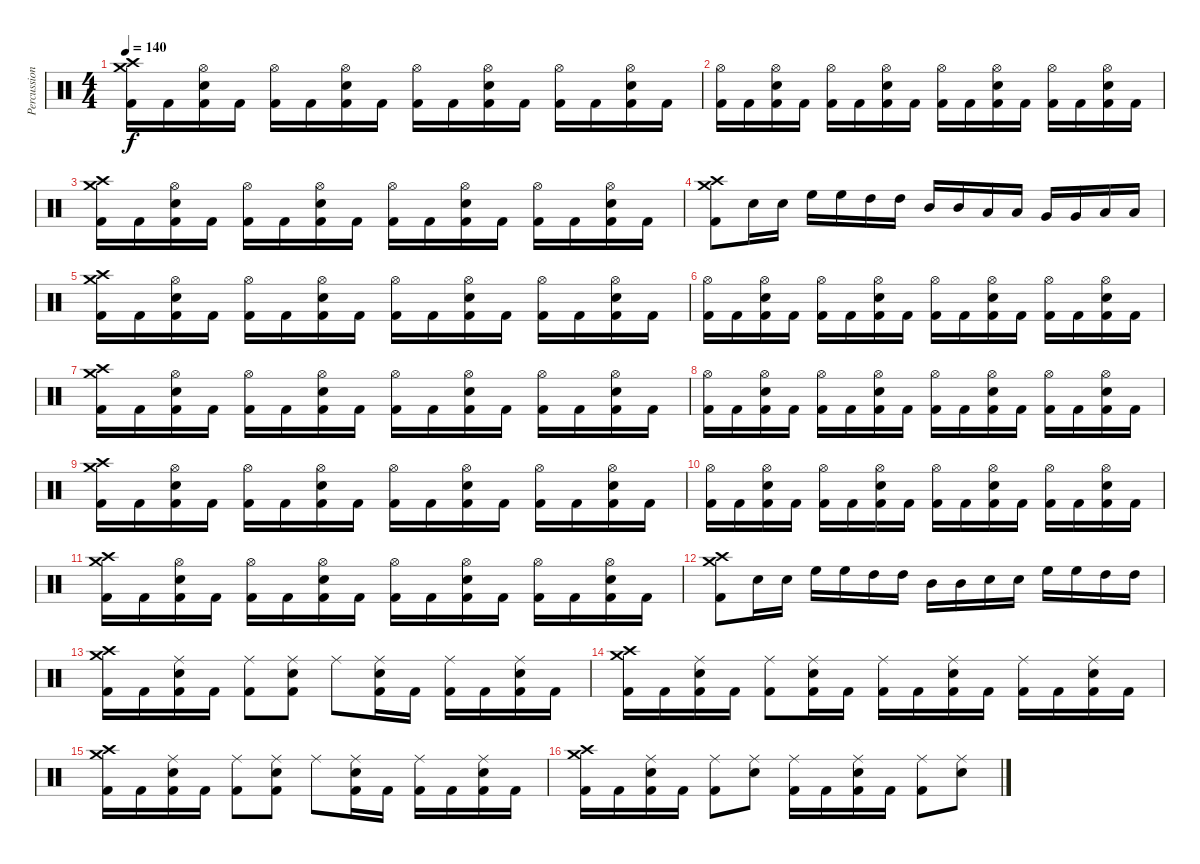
\track ("Percussion" "Percussion") {instrument percussion}
\staff {score}
\articulation defaults
\ts (4 4)
\tempo 140
\clef neutral
\ks c
("Kick (hit) 2" "Crash high (hit)" "Crash medium (hit)").16{dy f} "Kick (hit) 2".16 ("Kick (hit) 2" "Electric Snare (hit)" "Hi-Hat (open)").16 "Kick (hit) 2".16 ("Kick (hit) 2" "Hi-Hat (open)").16 "Kick (hit) 2".16 ("Kick (hit) 2" "Electric Snare (hit)" "Hi-Hat (open)").16 "Kick (hit) 2".16 ("Kick (hit) 2" "Hi-Hat (open)").16 "Kick (hit) 2".16 ("Kick (hit) 2" "Electric Snare (hit)" "Hi-Hat (open)").16 "Kick (hit) 2".16 ("Kick (hit) 2" "Hi-Hat (open)").16 "Kick (hit) 2".16 ("Kick (hit) 2" "Electric Snare (hit)" "Hi-Hat (open)").16 "Kick (hit) 2".16 |
("Kick (hit) 2" "Hi-Hat (open)").16 "Kick (hit) 2".16 ("Kick (hit) 2" "Electric Snare (hit)" "Hi-Hat (open)").16 "Kick (hit) 2".16 ("Kick (hit) 2" "Hi-Hat (open)").16 "Kick (hit) 2".16 ("Kick (hit) 2" "Electric Snare (hit)" "Hi-Hat (open)").16 "Kick (hit) 2".16 ("Kick (hit) 2" "Hi-Hat (open)").16 "Kick (hit) 2".16 ("Kick (hit) 2" "Electric Snare (hit)" "Hi-Hat (open)").16 "Kick (hit) 2".16 ("Kick (hit) 2" "Hi-Hat (open)").16 "Kick (hit) 2".16 ("Kick (hit) 2" "Electric Snare (hit)" "Hi-Hat (open)").16 "Kick (hit) 2".16 |
("Kick (hit) 2" "Crash high (hit)" "Crash medium (hit)").16 "Kick (hit) 2".16 ("Kick (hit) 2" "Electric Snare (hit)" "Hi-Hat (open)").16 "Kick (hit) 2".16 ("Kick (hit) 2" "Hi-Hat (open)").16 "Kick (hit) 2".16 ("Kick (hit) 2" "Electric Snare (hit)" "Hi-Hat (open)").16 "Kick (hit) 2".16 ("Kick (hit) 2" "Hi-Hat (open)").16 "Kick (hit) 2".16 ("Kick (hit) 2" "Electric Snare (hit)" "Hi-Hat (open)").16 "Kick (hit) 2".16 ("Kick (hit) 2" "Hi-Hat (open)").16 "Kick (hit) 2".16 ("Kick (hit) 2" "Electric Snare (hit)" "Hi-Hat (open)").16 "Kick (hit) 2".16 |
("Kick (hit) 2" "Crash high (hit)" "Crash medium (hit)").8 "Electric Snare (hit)".16 "Electric Snare (hit)".16 "High Floor Tom (hit)".16 "High Floor Tom (hit)".16 "High Tom (hit)".16 "High Tom (hit)".16 "Mid Tom (hit)".16 "Mid Tom (hit)".16 "Low Tom (hit)".16 "Low Tom (hit)".16 "Very Low Tom (hit)".16 "Very Low Tom (hit)".16 "Low Floor Tom (hit)".16 "Low Floor Tom (hit)".16 |
("Kick (hit) 2" "Crash high (hit)" "Crash medium (hit)").16 "Kick (hit) 2".16 ("Kick (hit) 2" "Electric Snare (hit)" "Hi-Hat (open)").16 "Kick (hit) 2".16 ("Kick (hit) 2" "Hi-Hat (open)").16 "Kick (hit) 2".16 ("Kick (hit) 2" "Electric Snare (hit)" "Hi-Hat (open)").16 "Kick (hit) 2".16 ("Kick (hit) 2" "Hi-Hat (open)").16 "Kick (hit) 2".16 ("Kick (hit) 2" "Electric Snare (hit)" "Hi-Hat (open)").16 "Kick (hit) 2".16 ("Kick (hit) 2" "Hi-Hat (open)").16 "Kick (hit) 2".16 ("Kick (hit) 2" "Electric Snare (hit)" "Hi-Hat (open)").16 "Kick (hit) 2".16 |
("Kick (hit) 2" "Hi-Hat (open)").16 "Kick (hit) 2".16 ("Kick (hit) 2" "Electric Snare (hit)" "Hi-Hat (open)").16 "Kick (hit) 2".16 ("Kick (hit) 2" "Hi-Hat (open)").16 "Kick (hit) 2".16 ("Kick (hit) 2" "Electric Snare (hit)" "Hi-Hat (open)").16 "Kick (hit) 2".16 ("Kick (hit) 2" "Hi-Hat (open)").16 "Kick (hit) 2".16 ("Kick (hit) 2" "Electric Snare (hit)" "Hi-Hat (open)").16 "Kick (hit) 2".16 ("Kick (hit) 2" "Hi-Hat (open)").16 "Kick (hit) 2".16 ("Kick (hit) 2" "Electric Snare (hit)" "Hi-Hat (open)").16 "Kick (hit) 2".16 |
("Kick (hit) 2" "Crash high (hit)" "Crash medium (hit)").16 "Kick (hit) 2".16 ("Kick (hit) 2" "Electric Snare (hit)" "Hi-Hat (open)").16 "Kick (hit) 2".16 ("Kick (hit) 2" "Hi-Hat (open)").16 "Kick (hit) 2".16 ("Kick (hit) 2" "Electric Snare (hit)" "Hi-Hat (open)").16 "Kick (hit) 2".16 ("Kick (hit) 2" "Hi-Hat (open)").16 "Kick (hit) 2".16 ("Kick (hit) 2" "Electric Snare (hit)" "Hi-Hat (open)").16 "Kick (hit) 2".16 ("Kick (hit) 2" "Hi-Hat (open)").16 "Kick (hit) 2".16 ("Kick (hit) 2" "Electric Snare (hit)" "Hi-Hat (open)").16 "Kick (hit) 2".16 |
("Kick (hit) 2" "Hi-Hat (open)").16 "Kick (hit) 2".16 ("Kick (hit) 2" "Electric Snare (hit)" "Hi-Hat (open)").16 "Kick (hit) 2".16 ("Kick (hit) 2" "Hi-Hat (open)").16 "Kick (hit) 2".16 ("Kick (hit) 2" "Electric Snare (hit)" "Hi-Hat (open)").16 "Kick (hit) 2".16 ("Kick (hit) 2" "Hi-Hat (open)").16 "Kick (hit) 2".16 ("Kick (hit) 2" "Electric Snare (hit)" "Hi-Hat (open)").16 "Kick (hit) 2".16 ("Kick (hit) 2" "Hi-Hat (open)").16 "Kick (hit) 2".16 ("Kick (hit) 2" "Electric Snare (hit)" "Hi-Hat (open)").16 "Kick (hit) 2".16 |
("Kick (hit) 2" "Crash high (hit)" "Crash medium (hit)").16 "Kick (hit) 2".16 ("Kick (hit) 2" "Electric Snare (hit)" "Hi-Hat (open)").16 "Kick (hit) 2".16 ("Kick (hit) 2" "Hi-Hat (open)").16 "Kick (hit) 2".16 ("Kick (hit) 2" "Electric Snare (hit)" "Hi-Hat (open)").16 "Kick (hit) 2".16 ("Kick (hit) 2" "Hi-Hat (open)").16 "Kick (hit) 2".16 ("Kick (hit) 2" "Electric Snare (hit)" "Hi-Hat (open)").16 "Kick (hit) 2".16 ("Kick (hit) 2" "Hi-Hat (open)").16 "Kick (hit) 2".16 ("Kick (hit) 2" "Electric Snare (hit)" "Hi-Hat (open)").16 "Kick (hit) 2".16 |
("Kick (hit) 2" "Hi-Hat (open)").16 "Kick (hit) 2".16 ("Kick (hit) 2" "Electric Snare (hit)" "Hi-Hat (open)").16 "Kick (hit) 2".16 ("Kick (hit) 2" "Hi-Hat (open)").16 "Kick (hit) 2".16 ("Kick (hit) 2" "Electric Snare (hit)" "Hi-Hat (open)").16 "Kick (hit) 2".16 ("Kick (hit) 2" "Hi-Hat (open)").16 "Kick (hit) 2".16 ("Kick (hit) 2" "Electric Snare (hit)" "Hi-Hat (open)").16 "Kick (hit) 2".16 ("Kick (hit) 2" "Hi-Hat (open)").16 "Kick (hit) 2".16 ("Kick (hit) 2" "Electric Snare (hit)" "Hi-Hat (open)").16 "Kick (hit) 2".16 |
("Kick (hit) 2" "Crash high (hit)" "Crash medium (hit)").16 "Kick (hit) 2".16 ("Kick (hit) 2" "Electric Snare (hit)" "Hi-Hat (open)").16 "Kick (hit) 2".16 ("Kick (hit) 2" "Hi-Hat (open)").16 "Kick (hit) 2".16 ("Kick (hit) 2" "Electric Snare (hit)" "Hi-Hat (open)").16 "Kick (hit) 2".16 ("Kick (hit) 2" "Hi-Hat (open)").16 "Kick (hit) 2".16 ("Kick (hit) 2" "Electric Snare (hit)" "Hi-Hat (open)").16 "Kick (hit) 2".16 ("Kick (hit) 2" "Hi-Hat (open)").16 "Kick (hit) 2".16 ("Kick (hit) 2" "Electric Snare (hit)" "Hi-Hat (open)").16 "Kick (hit) 2".16 |
("Kick (hit) 2" "Crash high (hit)" "Crash medium (hit)").8 "Electric Snare (hit)".16 "Electric Snare (hit)".16 "High Floor Tom (hit)".16 "High Floor Tom (hit)".16 "High Tom (hit)".16 "High Tom (hit)".16 "Mid Tom (hit)".16 "Mid Tom (hit)".16 "Electric Snare (hit)".16 "Electric Snare (hit)".16 "High Floor Tom (hit)".16 "High Floor Tom (hit)".16 "High Tom (hit)".16 "High Tom (hit)".16 |
("Kick (hit) 2" "Crash high (hit)" "Crash medium (hit)").16 "Kick (hit) 2".16 ("Kick (hit) 2" "Electric Snare (hit)" "Ride (middle)").16 "Kick (hit) 2".16 ("Kick (hit) 2" "Ride (middle)").8 ("Kick (hit) 2" "Electric Snare (hit)" "Ride (middle)").8 "Ride (middle)".8 ("Kick (hit) 2" "Electric Snare (hit)" "Ride (middle)").16 "Kick (hit) 2".16 ("Kick (hit) 2" "Ride (middle)").16 "Kick (hit) 2".16 ("Kick (hit) 2" "Electric Snare (hit)" "Ride (middle)").16 "Kick (hit) 2".16 |
("Kick (hit) 2" "Crash high (hit)" "Crash medium (hit)").16 "Kick (hit) 2".16 ("Kick (hit) 2" "Electric Snare (hit)" "Ride (middle)").16 "Kick (hit) 2".16 ("Kick (hit) 2" "Ride (middle)").8 ("Kick (hit) 2" "Electric Snare (hit)" "Ride (middle)").16 "Kick (hit) 2".16 ("Kick (hit) 2" "Ride (middle)").16 "Kick (hit) 2".16 ("Kick (hit) 2" "Electric Snare (hit)" "Ride (middle)").16 "Kick (hit) 2".16 ("Kick (hit) 2" "Ride (middle)").16 "Kick (hit) 2".16 ("Kick (hit) 2" "Electric Snare (hit)" "Ride (middle)").16 "Kick (hit) 2".16 |
("Kick (hit) 2" "Crash high (hit)" "Crash medium (hit)").16 "Kick (hit) 2".16 ("Kick (hit) 2" "Electric Snare (hit)" "Ride (middle)").16 "Kick (hit) 2".16 ("Kick (hit) 2" "Ride (middle)").8 ("Kick (hit) 2" "Electric Snare (hit)" "Ride (middle)").8 "Ride (middle)".8 ("Kick (hit) 2" "Electric Snare (hit)" "Ride (middle)").16 "Kick (hit) 2".16 ("Kick (hit) 2" "Ride (middle)").16 "Kick (hit) 2".16 ("Kick (hit) 2" "Electric Snare (hit)" "Ride (middle)").16 "Kick (hit) 2".16 |
("Kick (hit) 2" "Crash high (hit)" "Crash medium (hit)").16 "Kick (hit) 2".16 ("Kick (hit) 2" "Electric Snare (hit)" "Ride (middle)").16 "Kick (hit) 2".16 ("Kick (hit) 2" "Ride (middle)").8 ("Electric Snare (hit)" "Ride (middle)").8 ("Kick (hit) 2" "Ride (middle)").16 "Kick (hit) 2".16 ("Kick (hit) 2" "Electric Snare (hit)" "Ride (middle)").16 "Kick (hit) 2".16 ("Kick (hit) 2" "Ride (middle)").8 ("Electric Snare (hit)" "Ride (middle)").8
